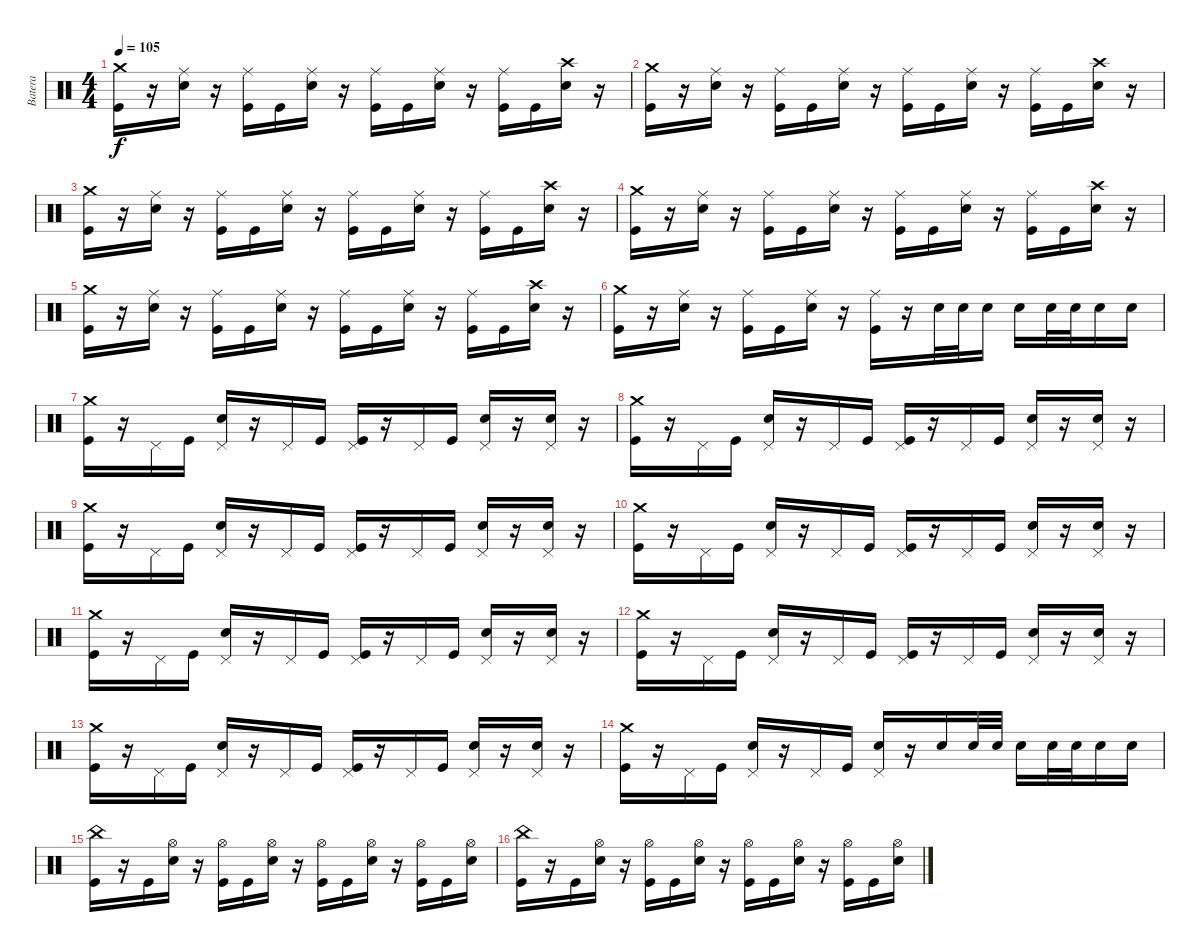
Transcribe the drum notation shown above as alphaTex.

\track ("Batera" "Batera") {instrument percussion}
\staff {score}
\articulation defaults
\ts (4 4)
\tempo 105
\clef neutral
\ks c
("Crash medium (hit)" "Kick (hit)").16{dy f} r.16 ("Ride (middle)" "Snare (hit) 2").16 r.16 ("Ride (middle)" "Kick (hit)").16 "Kick (hit)".16 ("Ride (middle)" "Snare (hit) 2").16 r.16 ("Ride (middle)" "Kick (hit)").16 "Kick (hit)".16 ("Ride (middle)" "Snare (hit) 2").16 r.16 ("Ride (middle)" "Kick (hit)").16 "Kick (hit)".16 ("Crash high (hit)" "Snare (hit) 2").16 r.16 |
("Crash medium (hit)" "Kick (hit)").16 r.16 ("Ride (middle)" "Snare (hit) 2").16 r.16 ("Ride (middle)" "Kick (hit)").16 "Kick (hit)".16 ("Ride (middle)" "Snare (hit) 2").16 r.16 ("Ride (middle)" "Kick (hit)").16 "Kick (hit)".16 ("Ride (middle)" "Snare (hit) 2").16 r.16 ("Ride (middle)" "Kick (hit)").16 "Kick (hit)".16 ("Crash high (hit)" "Snare (hit) 2").16 r.16 |
("Crash medium (hit)" "Kick (hit)").16 r.16 ("Ride (middle)" "Snare (hit) 2").16 r.16 ("Ride (middle)" "Kick (hit)").16 "Kick (hit)".16 ("Ride (middle)" "Snare (hit) 2").16 r.16 ("Ride (middle)" "Kick (hit)").16 "Kick (hit)".16 ("Ride (middle)" "Snare (hit) 2").16 r.16 ("Ride (middle)" "Kick (hit)").16 "Kick (hit)".16 ("Crash high (hit)" "Snare (hit) 2").16 r.16 |
("Crash medium (hit)" "Kick (hit)").16 r.16 ("Ride (middle)" "Snare (hit) 2").16 r.16 ("Ride (middle)" "Kick (hit)").16 "Kick (hit)".16 ("Ride (middle)" "Snare (hit) 2").16 r.16 ("Ride (middle)" "Kick (hit)").16 "Kick (hit)".16 ("Ride (middle)" "Snare (hit) 2").16 r.16 ("Ride (middle)" "Kick (hit)").16 "Kick (hit)".16 ("Crash high (hit)" "Snare (hit) 2").16 r.16 |
("Crash medium (hit)" "Kick (hit)").16 r.16 ("Ride (middle)" "Snare (hit) 2").16 r.16 ("Ride (middle)" "Kick (hit)").16 "Kick (hit)".16 ("Ride (middle)" "Snare (hit) 2").16 r.16 ("Ride (middle)" "Kick (hit)").16 "Kick (hit)".16 ("Ride (middle)" "Snare (hit) 2").16 r.16 ("Ride (middle)" "Kick (hit)").16 "Kick (hit)".16 ("Crash high (hit)" "Snare (hit) 2").16 r.16 |
("Crash medium (hit)" "Kick (hit)").16 r.16 ("Ride (middle)" "Snare (hit) 2").16 r.16 ("Ride (middle)" "Kick (hit)").16 "Kick (hit)".16 ("Ride (middle)" "Snare (hit) 2").16 r.16 ("Ride (middle)" "Kick (hit)").16 r.16 "Snare (hit) 2".32 "Snare (hit) 2".32 "Snare (hit) 2".16 "Snare (hit) 2".16 "Snare (hit) 2".32 "Snare (hit) 2".32 "Snare (hit) 2".16 "Snare (hit) 2".16 |
("Crash medium (hit)" "Kick (hit)").16 r.16 "Pedal Hi-Hat (hit)".16 "Kick (hit)".16 ("Pedal Hi-Hat (hit)" "Snare (hit) 2").16 r.16 "Pedal Hi-Hat (hit)".16 "Kick (hit)".16 ("Pedal Hi-Hat (hit)" "Kick (hit)").16 r.16 "Pedal Hi-Hat (hit)".16 "Kick (hit)".16 ("Pedal Hi-Hat (hit)" "Snare (hit) 2").16 r.16 ("Pedal Hi-Hat (hit)" "Snare (hit) 2").16 r.16 |
("Crash medium (hit)" "Kick (hit)").16 r.16 "Pedal Hi-Hat (hit)".16 "Kick (hit)".16 ("Pedal Hi-Hat (hit)" "Snare (hit) 2").16 r.16 "Pedal Hi-Hat (hit)".16 "Kick (hit)".16 ("Pedal Hi-Hat (hit)" "Kick (hit)").16 r.16 "Pedal Hi-Hat (hit)".16 "Kick (hit)".16 ("Pedal Hi-Hat (hit)" "Snare (hit) 2").16 r.16 ("Pedal Hi-Hat (hit)" "Snare (hit) 2").16 r.16 |
("Crash medium (hit)" "Kick (hit)").16 r.16 "Pedal Hi-Hat (hit)".16 "Kick (hit)".16 ("Pedal Hi-Hat (hit)" "Snare (hit) 2").16 r.16 "Pedal Hi-Hat (hit)".16 "Kick (hit)".16 ("Pedal Hi-Hat (hit)" "Kick (hit)").16 r.16 "Pedal Hi-Hat (hit)".16 "Kick (hit)".16 ("Pedal Hi-Hat (hit)" "Snare (hit) 2").16 r.16 ("Pedal Hi-Hat (hit)" "Snare (hit) 2").16 r.16 |
("Crash medium (hit)" "Kick (hit)").16 r.16 "Pedal Hi-Hat (hit)".16 "Kick (hit)".16 ("Pedal Hi-Hat (hit)" "Snare (hit) 2").16 r.16 "Pedal Hi-Hat (hit)".16 "Kick (hit)".16 ("Pedal Hi-Hat (hit)" "Kick (hit)").16 r.16 "Pedal Hi-Hat (hit)".16 "Kick (hit)".16 ("Pedal Hi-Hat (hit)" "Snare (hit) 2").16 r.16 ("Pedal Hi-Hat (hit)" "Snare (hit) 2").16 r.16 |
("Crash medium (hit)" "Kick (hit)").16 r.16 "Pedal Hi-Hat (hit)".16 "Kick (hit)".16 ("Pedal Hi-Hat (hit)" "Snare (hit) 2").16 r.16 "Pedal Hi-Hat (hit)".16 "Kick (hit)".16 ("Pedal Hi-Hat (hit)" "Kick (hit)").16 r.16 "Pedal Hi-Hat (hit)".16 "Kick (hit)".16 ("Pedal Hi-Hat (hit)" "Snare (hit) 2").16 r.16 ("Pedal Hi-Hat (hit)" "Snare (hit) 2").16 r.16 |
("Crash medium (hit)" "Kick (hit)").16 r.16 "Pedal Hi-Hat (hit)".16 "Kick (hit)".16 ("Pedal Hi-Hat (hit)" "Snare (hit) 2").16 r.16 "Pedal Hi-Hat (hit)".16 "Kick (hit)".16 ("Pedal Hi-Hat (hit)" "Kick (hit)").16 r.16 "Pedal Hi-Hat (hit)".16 "Kick (hit)".16 ("Pedal Hi-Hat (hit)" "Snare (hit) 2").16 r.16 ("Pedal Hi-Hat (hit)" "Snare (hit) 2").16 r.16 |
("Crash medium (hit)" "Kick (hit)").16 r.16 "Pedal Hi-Hat (hit)".16 "Kick (hit)".16 ("Pedal Hi-Hat (hit)" "Snare (hit) 2").16 r.16 "Pedal Hi-Hat (hit)".16 "Kick (hit)".16 ("Pedal Hi-Hat (hit)" "Kick (hit)").16 r.16 "Pedal Hi-Hat (hit)".16 "Kick (hit)".16 ("Pedal Hi-Hat (hit)" "Snare (hit) 2").16 r.16 ("Pedal Hi-Hat (hit)" "Snare (hit) 2").16 r.16 |
("Crash medium (hit)" "Kick (hit)").16 r.16 "Pedal Hi-Hat (hit)".16 "Kick (hit)".16 ("Pedal Hi-Hat (hit)" "Snare (hit) 2").16 r.16 "Pedal Hi-Hat (hit)".16 "Kick (hit)".16 ("Pedal Hi-Hat (hit)" "Snare (hit) 2").16 r.16 "Snare (hit) 2".16 "Snare (hit) 2".32 "Snare (hit) 2".32 "Snare (hit) 2".16 "Snare (hit) 2".32 "Snare (hit) 2".32 "Snare (hit) 2".16 "Snare (hit) 2".16 |
("China (hit)" "Kick (hit)").16 r.16 "Kick (hit)".16 ("Hi-Hat (open)" "Snare (hit) 2").16 r.16 ("Hi-Hat (open)" "Kick (hit)").16 "Kick (hit)".16 ("Hi-Hat (open)" "Snare (hit) 2").16 r.16 ("Hi-Hat (open)" "Kick (hit)").16 "Kick (hit)".16 ("Hi-Hat (open)" "Snare (hit) 2").16 r.16 ("Hi-Hat (open)" "Kick (hit)").16 "Kick (hit)".16 ("Hi-Hat (open)" "Snare (hit) 2").16 |
("China (hit)" "Kick (hit)").16 r.16 "Kick (hit)".16 ("Hi-Hat (open)" "Snare (hit) 2").16 r.16 ("Hi-Hat (open)" "Kick (hit)").16 "Kick (hit)".16 ("Hi-Hat (open)" "Snare (hit) 2").16 r.16 ("Hi-Hat (open)" "Kick (hit)").16 "Kick (hit)".16 ("Hi-Hat (open)" "Snare (hit) 2").16 r.16 ("Hi-Hat (open)" "Kick (hit)").16 "Kick (hit)".16 ("Hi-Hat (open)" "Snare (hit) 2").16
